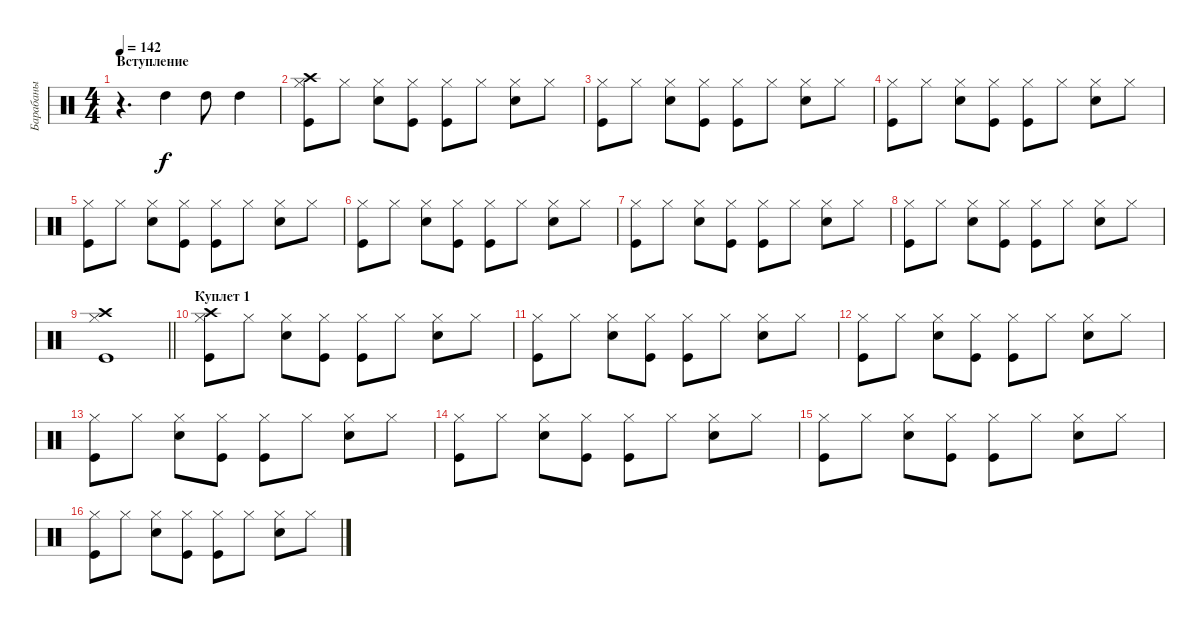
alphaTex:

\track ("Барабаны" "Барабаны") {instrument percussion}
\staff {score}
\articulation defaults
\ts (4 4)
\section ("" "Вступление")
\tempo 142
\clef neutral
\ks c
r.4{d dy f} "High Tom (hit)".4 "High Tom (hit)".8 "High Tom (hit)".4 |
("Kick (hit)" "Hi-Hat (closed)" "Crash high (hit)").8 "Hi-Hat (closed)".8 ("Snare (hit) 2" "Hi-Hat (closed)").8 ("Kick (hit)" "Hi-Hat (closed)").8 ("Kick (hit)" "Hi-Hat (closed)").8 "Hi-Hat (closed)".8 ("Snare (hit) 2" "Hi-Hat (closed)").8 "Hi-Hat (closed)".8 |
("Kick (hit)" "Hi-Hat (closed)").8 "Hi-Hat (closed)".8 ("Snare (hit) 2" "Hi-Hat (closed)").8 ("Kick (hit)" "Hi-Hat (closed)").8 ("Kick (hit)" "Hi-Hat (closed)").8 "Hi-Hat (closed)".8 ("Snare (hit) 2" "Hi-Hat (closed)").8 "Hi-Hat (closed)".8 |
("Kick (hit)" "Hi-Hat (closed)").8 "Hi-Hat (closed)".8 ("Snare (hit) 2" "Hi-Hat (closed)").8 ("Kick (hit)" "Hi-Hat (closed)").8 ("Kick (hit)" "Hi-Hat (closed)").8 "Hi-Hat (closed)".8 ("Snare (hit) 2" "Hi-Hat (closed)").8 "Hi-Hat (closed)".8 |
("Kick (hit)" "Hi-Hat (closed)").8 "Hi-Hat (closed)".8 ("Snare (hit) 2" "Hi-Hat (closed)").8 ("Kick (hit)" "Hi-Hat (closed)").8 ("Kick (hit)" "Hi-Hat (closed)").8 "Hi-Hat (closed)".8 ("Snare (hit) 2" "Hi-Hat (closed)").8 "Hi-Hat (closed)".8 |
("Kick (hit)" "Hi-Hat (closed)").8 "Hi-Hat (closed)".8 ("Snare (hit) 2" "Hi-Hat (closed)").8 ("Kick (hit)" "Hi-Hat (closed)").8 ("Kick (hit)" "Hi-Hat (closed)").8 "Hi-Hat (closed)".8 ("Snare (hit) 2" "Hi-Hat (closed)").8 "Hi-Hat (closed)".8 |
("Kick (hit)" "Hi-Hat (closed)").8 "Hi-Hat (closed)".8 ("Snare (hit) 2" "Hi-Hat (closed)").8 ("Kick (hit)" "Hi-Hat (closed)").8 ("Kick (hit)" "Hi-Hat (closed)").8 "Hi-Hat (closed)".8 ("Snare (hit) 2" "Hi-Hat (closed)").8 "Hi-Hat (closed)".8 |
("Kick (hit)" "Hi-Hat (closed)").8 "Hi-Hat (closed)".8 ("Snare (hit) 2" "Hi-Hat (closed)").8 ("Kick (hit)" "Hi-Hat (closed)").8 ("Kick (hit)" "Hi-Hat (closed)").8 "Hi-Hat (closed)".8 ("Snare (hit) 2" "Hi-Hat (closed)").8 "Hi-Hat (closed)".8 |
\barLineRight lightlight
("Kick (hit)" "Hi-Hat (closed)" "Crash high (hit)").1 |
\section ("" "Куплет 1")
("Kick (hit)" "Hi-Hat (closed)" "Crash high (hit)").8 "Hi-Hat (closed)".8 ("Snare (hit) 2" "Hi-Hat (closed)").8 ("Kick (hit)" "Hi-Hat (closed)").8 ("Kick (hit)" "Hi-Hat (closed)").8 "Hi-Hat (closed)".8 ("Snare (hit) 2" "Hi-Hat (closed)").8 "Hi-Hat (closed)".8 |
("Kick (hit)" "Hi-Hat (closed)").8 "Hi-Hat (closed)".8 ("Snare (hit) 2" "Hi-Hat (closed)").8 ("Kick (hit)" "Hi-Hat (closed)").8 ("Kick (hit)" "Hi-Hat (closed)").8 "Hi-Hat (closed)".8 ("Snare (hit) 2" "Hi-Hat (closed)").8 "Hi-Hat (closed)".8 |
("Kick (hit)" "Hi-Hat (closed)").8 "Hi-Hat (closed)".8 ("Snare (hit) 2" "Hi-Hat (closed)").8 ("Kick (hit)" "Hi-Hat (closed)").8 ("Kick (hit)" "Hi-Hat (closed)").8 "Hi-Hat (closed)".8 ("Snare (hit) 2" "Hi-Hat (closed)").8 "Hi-Hat (closed)".8 |
("Kick (hit)" "Hi-Hat (closed)").8 "Hi-Hat (closed)".8 ("Snare (hit) 2" "Hi-Hat (closed)").8 ("Kick (hit)" "Hi-Hat (closed)").8 ("Kick (hit)" "Hi-Hat (closed)").8 "Hi-Hat (closed)".8 ("Snare (hit) 2" "Hi-Hat (closed)").8 "Hi-Hat (closed)".8 |
("Kick (hit)" "Hi-Hat (closed)").8 "Hi-Hat (closed)".8 ("Snare (hit) 2" "Hi-Hat (closed)").8 ("Kick (hit)" "Hi-Hat (closed)").8 ("Kick (hit)" "Hi-Hat (closed)").8 "Hi-Hat (closed)".8 ("Snare (hit) 2" "Hi-Hat (closed)").8 "Hi-Hat (closed)".8 |
("Kick (hit)" "Hi-Hat (closed)").8 "Hi-Hat (closed)".8 ("Snare (hit) 2" "Hi-Hat (closed)").8 ("Kick (hit)" "Hi-Hat (closed)").8 ("Kick (hit)" "Hi-Hat (closed)").8 "Hi-Hat (closed)".8 ("Snare (hit) 2" "Hi-Hat (closed)").8 "Hi-Hat (closed)".8 |
("Kick (hit)" "Hi-Hat (closed)").8 "Hi-Hat (closed)".8 ("Snare (hit) 2" "Hi-Hat (closed)").8 ("Kick (hit)" "Hi-Hat (closed)").8 ("Kick (hit)" "Hi-Hat (closed)").8 "Hi-Hat (closed)".8 ("Snare (hit) 2" "Hi-Hat (closed)").8 "Hi-Hat (closed)".8
